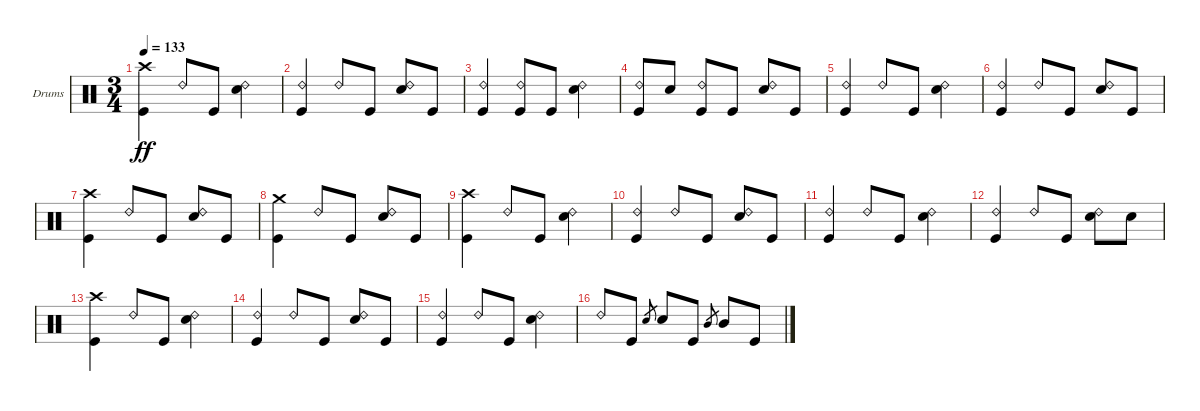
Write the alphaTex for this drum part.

\bracketExtendMode groupsimilarinstruments
\firstSystemTrackNameOrientation horizontal
\otherSystemsTrackNameOrientation horizontal
\track ("Drumkit" "Drums") {instrument percussion}
\staff {score}
\articulation defaults
\ts (3 4)
\tempo 133
\clef neutral
\ks c
("Kick (hit)" "Crash high (hit)").4{dy ff} "Ride (bell) 2".8 "Kick (hit)".8 ("Snare (hit) 2" "Ride (bell) 2").4 |
("Ride (bell) 2" "Kick (hit)").4 "Ride (bell) 2".8 "Kick (hit)".8 ("Ride (bell) 2" "Snare (hit) 2").8 "Kick (hit)".8 |
("Kick (hit)" "Ride (bell) 2").4 ("Ride (bell) 2" "Kick (hit)").8 "Kick (hit)".8 ("Snare (hit) 2" "Ride (bell) 2").4 |
("Ride (bell) 2" "Kick (hit)").8 "Snare (hit) 2".8 ("Ride (bell) 2" "Kick (hit)").8 "Kick (hit)".8 ("Ride (bell) 2" "Snare (hit) 2").8 "Kick (hit)".8 |
("Kick (hit)" "Ride (bell) 2").4 "Ride (bell) 2".8 "Kick (hit)".8 ("Snare (hit) 2" "Ride (bell) 2").4 |
("Ride (bell) 2" "Kick (hit)").4 "Ride (bell) 2".8 "Kick (hit)".8 ("Ride (bell) 2" "Snare (hit) 2").8 "Kick (hit)".8 |
("Kick (hit)" "Crash high (hit)").4 "Ride (bell) 2".8 "Kick (hit)".8 ("Ride (bell) 2" "Snare (hit) 2").8 "Kick (hit)".8 |
("Kick (hit)" "Crash medium (hit)").4 "Ride (bell) 2".8 "Kick (hit)".8 ("Ride (bell) 2" "Snare (hit) 2").8 "Kick (hit)".8 |
("Kick (hit)" "Crash high (hit)").4 "Ride (bell) 2".8 "Kick (hit)".8 ("Ride (bell) 2" "Snare (hit) 2").4 |
("Ride (bell) 2" "Kick (hit)").4 "Ride (bell) 2".8 "Kick (hit)".8 ("Ride (bell) 2" "Snare (hit) 2").8 "Kick (hit)".8 |
("Ride (bell) 2" "Kick (hit)").4 "Ride (bell) 2".8 "Kick (hit)".8 ("Ride (bell) 2" "Snare (hit) 2").4 |
("Ride (bell) 2" "Kick (hit)").4 "Ride (bell) 2".8 "Kick (hit)".8 ("Ride (bell) 2" "Snare (hit) 2").8 "Snare (hit) 2".8 |
("Kick (hit)" "Crash high (hit)").4 "Ride (bell) 2".8 "Kick (hit)".8 ("Ride (bell) 2" "Snare (hit) 2").4 |
("Ride (bell) 2" "Kick (hit)").4 "Ride (bell) 2".8 "Kick (hit)".8 ("Ride (bell) 2" "Snare (hit) 2").8 "Kick (hit)".8 |
("Ride (bell) 2" "Kick (hit)").4 "Ride (bell) 2".8 "Kick (hit)".8 ("Ride (bell) 2" "Snare (hit) 2").4 |
"Ride (bell) 2".8 "Kick (hit)".8 "Snare (hit) 2".8{gr} "Snare (hit) 2".8 "Kick (hit)".8 "Mid Tom (hit)".8{gr} "Mid Tom (hit)".8 "Kick (hit)".8
